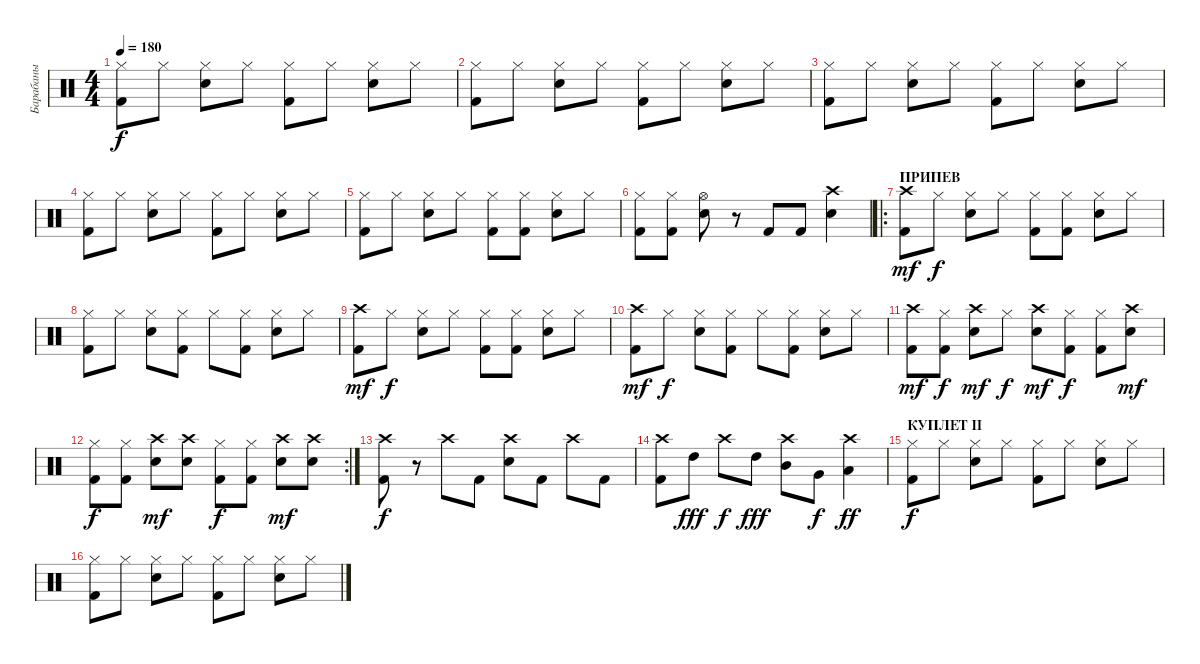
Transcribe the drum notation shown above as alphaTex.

\track ("Барабаны" "Барабаны") {instrument percussion}
\staff {score}
\articulation defaults
\ts (4 4)
\tempo 180
\clef neutral
\ks c
("Hi-Hat (closed)" "Kick (hit) 2").8{dy f} "Hi-Hat (closed)".8 ("Hi-Hat (closed)" "Snare (hit) 2").8 "Hi-Hat (closed)".8 ("Hi-Hat (closed)" "Kick (hit) 2").8 "Hi-Hat (closed)".8 ("Hi-Hat (closed)" "Snare (hit) 2").8 "Hi-Hat (closed)".8 |
("Hi-Hat (closed)" "Kick (hit) 2").8 "Hi-Hat (closed)".8 ("Hi-Hat (closed)" "Snare (hit) 2").8 "Hi-Hat (closed)".8 ("Hi-Hat (closed)" "Kick (hit) 2").8 "Hi-Hat (closed)".8 ("Hi-Hat (closed)" "Snare (hit) 2").8 "Hi-Hat (closed)".8 |
("Hi-Hat (closed)" "Kick (hit) 2").8 "Hi-Hat (closed)".8 ("Hi-Hat (closed)" "Snare (hit) 2").8 "Hi-Hat (closed)".8 ("Hi-Hat (closed)" "Kick (hit) 2").8 "Hi-Hat (closed)".8 ("Hi-Hat (closed)" "Snare (hit) 2").8 "Hi-Hat (closed)".8 |
("Hi-Hat (closed)" "Kick (hit) 2").8 "Hi-Hat (closed)".8 ("Hi-Hat (closed)" "Snare (hit) 2").8 "Hi-Hat (closed)".8 ("Hi-Hat (closed)" "Kick (hit) 2").8 "Hi-Hat (closed)".8 ("Hi-Hat (closed)" "Snare (hit) 2").8 "Hi-Hat (closed)".8 |
("Hi-Hat (closed)" "Kick (hit) 2").8 "Hi-Hat (closed)".8 ("Hi-Hat (closed)" "Snare (hit) 2").8 "Hi-Hat (closed)".8 ("Hi-Hat (closed)" "Kick (hit) 2").8 ("Hi-Hat (closed)" "Kick (hit) 2").8 ("Hi-Hat (closed)" "Snare (hit) 2").8 "Hi-Hat (closed)".8 |
("Hi-Hat (closed)" "Kick (hit) 2").8 ("Hi-Hat (closed)" "Kick (hit) 2").8 ("Hi-Hat (open)" "Snare (hit) 2").8 r.8 "Kick (hit) 2".8 "Kick (hit) 2".8 ("Crash high (hit)" "Snare (hit) 2").4 |
\ro
\section ("" "ПРИПЕВ")
("Crash high (hit)" "Kick (hit) 2").8{dy mf} "Hi-Hat (closed)".8{dy f} ("Hi-Hat (closed)" "Snare (hit) 2").8 "Hi-Hat (closed)".8 ("Hi-Hat (closed)" "Kick (hit) 2").8 ("Hi-Hat (closed)" "Kick (hit) 2").8 ("Hi-Hat (closed)" "Snare (hit) 2").8 "Hi-Hat (closed)".8 |
("Hi-Hat (closed)" "Kick (hit) 2").8 "Hi-Hat (closed)".8 ("Hi-Hat (closed)" "Snare (hit) 2").8 ("Hi-Hat (closed)" "Kick (hit) 2").8 "Hi-Hat (closed)".8 ("Hi-Hat (closed)" "Kick (hit) 2").8 ("Hi-Hat (closed)" "Snare (hit) 2").8 "Hi-Hat (closed)".8 |
("Crash high (hit)" "Kick (hit) 2").8{dy mf} "Hi-Hat (closed)".8{dy f} ("Hi-Hat (closed)" "Snare (hit) 2").8 "Hi-Hat (closed)".8 ("Hi-Hat (closed)" "Kick (hit) 2").8 ("Hi-Hat (closed)" "Kick (hit) 2").8 ("Hi-Hat (closed)" "Snare (hit) 2").8 "Hi-Hat (closed)".8 |
("Crash high (hit)" "Kick (hit) 2").8{dy mf} "Hi-Hat (closed)".8{dy f} ("Hi-Hat (closed)" "Snare (hit) 2").8 ("Hi-Hat (closed)" "Kick (hit) 2").8 "Hi-Hat (closed)".8 ("Hi-Hat (closed)" "Kick (hit) 2").8 ("Hi-Hat (closed)" "Snare (hit) 2").8 "Hi-Hat (closed)".8 |
("Crash high (hit)" "Kick (hit) 2").8{dy mf} ("Hi-Hat (closed)" "Kick (hit) 2").8{dy f} ("Crash high (hit)" "Snare (hit) 2").8{dy mf} "Hi-Hat (closed)".8{dy f} ("Crash high (hit)" "Snare (hit) 2").8{dy mf} ("Hi-Hat (closed)" "Kick (hit) 2").8{dy f} ("Hi-Hat (closed)" "Kick (hit) 2").8 ("Crash high (hit)" "Snare (hit) 2").8{dy mf} |
\rc 2
("Hi-Hat (closed)" "Kick (hit) 2").8{dy f} ("Hi-Hat (closed)" "Kick (hit) 2").8 ("Crash high (hit)" "Snare (hit) 2").8{dy mf} ("Crash high (hit)" "Snare (hit) 2").8 ("Hi-Hat (closed)" "Kick (hit) 2").8{dy f} ("Hi-Hat (closed)" "Kick (hit) 2").8 ("Crash high (hit)" "Snare (hit) 2").8{dy mf} ("Crash high (hit)" "Snare (hit) 2").8 |
("Crash high (hit)" "Kick (hit) 2").8{dy f} r.8 "Crash high (hit)".8 "Kick (hit) 2".8 ("Crash high (hit)" "Snare (hit) 2").8 "Kick (hit) 2".8 "Crash high (hit)".8 "Kick (hit) 2".8 |
("Crash high (hit)" "Kick (hit) 2").8 "High Tom (hit)".8{dy fff} "Crash high (hit)".8{dy f} "High Tom (hit)".8{dy fff} ("Crash high (hit)" "Mid Tom (hit)").8 "Very Low Tom (hit)".8{dy f} ("Crash high (hit)" "Low Floor Tom (hit)").4{dy ff} |
\section ("" "КУПЛЕТ II")
("Hi-Hat (closed)" "Kick (hit) 2").8{dy f} "Hi-Hat (closed)".8 ("Hi-Hat (closed)" "Snare (hit) 2").8 "Hi-Hat (closed)".8 ("Hi-Hat (closed)" "Kick (hit) 2").8 "Hi-Hat (closed)".8 ("Hi-Hat (closed)" "Snare (hit) 2").8 "Hi-Hat (closed)".8 |
("Hi-Hat (closed)" "Kick (hit) 2").8 "Hi-Hat (closed)".8 ("Hi-Hat (closed)" "Snare (hit) 2").8 "Hi-Hat (closed)".8 ("Hi-Hat (closed)" "Kick (hit) 2").8 "Hi-Hat (closed)".8 ("Hi-Hat (closed)" "Snare (hit) 2").8 "Hi-Hat (closed)".8
